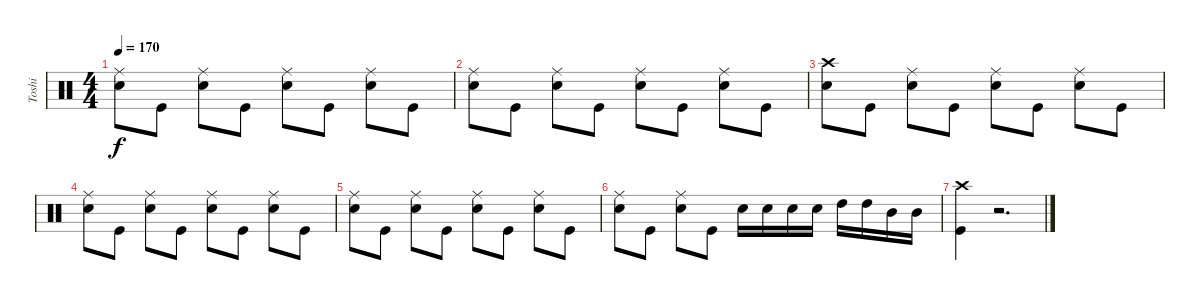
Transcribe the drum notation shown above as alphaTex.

\track ("Toshi" "Toshi") {instrument percussion}
\staff {score}
\articulation defaults
\ts (4 4)
\tempo 170
\clef neutral
\ks c
("Ride (middle)" "Snare (hit) 2").8{dy f} "Kick (hit)".8 ("Ride (middle)" "Snare (hit) 2").8 "Kick (hit)".8 ("Ride (middle)" "Snare (hit) 2").8 "Kick (hit)".8 ("Ride (middle)" "Snare (hit) 2").8 "Kick (hit)".8 |
("Ride (middle)" "Snare (hit) 2").8 "Kick (hit)".8 ("Ride (middle)" "Snare (hit) 2").8 "Kick (hit)".8 ("Ride (middle)" "Snare (hit) 2").8 "Kick (hit)".8 ("Ride (middle)" "Snare (hit) 2").8 "Kick (hit)".8 |
("Crash high (hit)" "Snare (hit) 2").8 "Kick (hit)".8 ("Ride (middle)" "Snare (hit) 2").8 "Kick (hit)".8 ("Ride (middle)" "Snare (hit) 2").8 "Kick (hit)".8 ("Ride (middle)" "Snare (hit) 2").8 "Kick (hit)".8 |
("Ride (middle)" "Snare (hit) 2").8 "Kick (hit)".8 ("Ride (middle)" "Snare (hit) 2").8 "Kick (hit)".8 ("Ride (middle)" "Snare (hit) 2").8 "Kick (hit)".8 ("Ride (middle)" "Snare (hit) 2").8 "Kick (hit)".8 |
("Ride (middle)" "Snare (hit) 2").8 "Kick (hit)".8 ("Ride (middle)" "Snare (hit) 2").8 "Kick (hit)".8 ("Ride (middle)" "Snare (hit) 2").8 "Kick (hit)".8 ("Ride (middle)" "Snare (hit) 2").8 "Kick (hit)".8 |
("Ride (middle)" "Snare (hit) 2").8 "Kick (hit)".8 ("Ride (middle)" "Snare (hit) 2").8 "Kick (hit)".8 "Snare (hit) 2".16 "Snare (hit) 2".16 "Snare (hit) 2".16 "Snare (hit) 2".16 "High Tom (hit)".16 "High Tom (hit)".16 "Mid Tom (hit)".16 "Mid Tom (hit)".16 |
("Crash high (hit)" "Kick (hit)").4 r.2{d}
